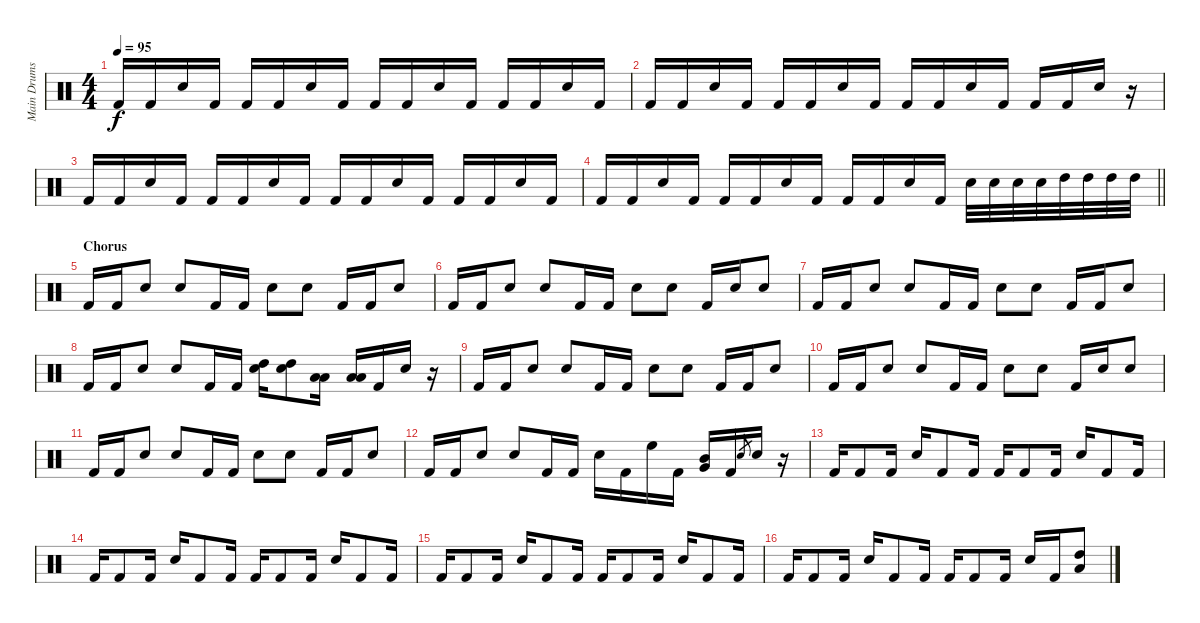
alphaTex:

\track ("Main Drums" "Main Drums") {instrument percussion}
\staff {score}
\articulation defaults
\ts (4 4)
\tempo 95
\clef neutral
\ks c "Kick (hit) 2".16{dy f} "Kick (hit) 2".16 "Snare (hit) 2".16 "Kick (hit) 2".16 "Kick (hit) 2".16 "Kick (hit) 2".16 "Snare (hit) 2".16 "Kick (hit) 2".16 "Kick (hit) 2".16 "Kick (hit) 2".16 "Snare (hit) 2".16 "Kick (hit) 2".16 "Kick (hit) 2".16 "Kick (hit) 2".16 "Snare (hit) 2".16 "Kick (hit) 2".16
|
"Kick (hit) 2".16 "Kick (hit) 2".16 "Snare (hit) 2".16 "Kick (hit) 2".16 "Kick (hit) 2".16 "Kick (hit) 2".16 "Snare (hit) 2".16 "Kick (hit) 2".16 "Kick (hit) 2".16 "Kick (hit) 2".16 "Snare (hit) 2".16 "Kick (hit) 2".16 "Kick (hit) 2".16 "Kick (hit) 2".16 "Snare (hit) 2".16 r.16 |
"Kick (hit) 2".16 "Kick (hit) 2".16 "Snare (hit) 2".16 "Kick (hit) 2".16 "Kick (hit) 2".16 "Kick (hit) 2".16 "Snare (hit) 2".16 "Kick (hit) 2".16 "Kick (hit) 2".16 "Kick (hit) 2".16 "Snare (hit) 2".16 "Kick (hit) 2".16 "Kick (hit) 2".16 "Kick (hit) 2".16 "Snare (hit) 2".16 "Kick (hit) 2".16 |
\barLineRight lightlight "Kick (hit) 2".16 "Kick (hit) 2".16 "Snare (hit) 2".16 "Kick (hit) 2".16 "Kick (hit) 2".16 "Kick (hit) 2".16 "Snare (hit) 2".16 "Kick (hit) 2".16 "Kick (hit) 2".16 "Kick (hit) 2".16 "Snare (hit) 2".16 "Kick (hit) 2".16 "Snare (hit) 2".32 "Snare (hit) 2".32 "Snare (hit) 2".32 "Snare (hit) 2".32 "High Tom (hit)".32 "High Tom (hit)".32 "High Tom (hit)".32 "High Tom (hit)".32
|
\section ("" "Chorus")
"Kick (hit) 2".16 "Kick (hit) 2".16 "Snare (hit) 2".8 "Snare (hit) 2".8 "Kick (hit) 2".16 "Kick (hit) 2".16 "Snare (hit) 2".8 "Snare (hit) 2".8 "Kick (hit) 2".16 "Kick (hit) 2".16 "Snare (hit) 2".8 |
"Kick (hit) 2".16 "Kick (hit) 2".16 "Snare (hit) 2".8 "Snare (hit) 2".8 "Kick (hit) 2".16 "Kick (hit) 2".16 "Snare (hit) 2".8 "Snare (hit) 2".8 "Kick (hit) 2".16 "Snare (hit) 2".16 "Snare (hit) 2".8 |
"Kick (hit) 2".16 "Kick (hit) 2".16 "Snare (hit) 2".8 "Snare (hit) 2".8 "Kick (hit) 2".16 "Kick (hit) 2".16 "Snare (hit) 2".8 "Snare (hit) 2".8 "Kick (hit) 2".16 "Kick (hit) 2".16 "Snare (hit) 2".8 |
"Kick (hit) 2".16 "Kick (hit) 2".16 "Snare (hit) 2".8 "Snare (hit) 2".8 "Kick (hit) 2".16 "Kick (hit) 2".16 ("High Tom (hit)" "Snare (hit) 2").16 ("High Tom (hit)" "Snare (hit) 2").8 ("Low Tom (hit)" "Low Floor Tom (hit)").16 ("Low Tom (hit)" "Low Floor Tom (hit)").16 "Kick (hit) 2".16 "Snare (hit) 2".16 r.16 |
"Kick (hit) 2".16 "Kick (hit) 2".16 "Snare (hit) 2".8 "Snare (hit) 2".8 "Kick (hit) 2".16 "Kick (hit) 2".16 "Snare (hit) 2".8 "Snare (hit) 2".8 "Kick (hit) 2".16 "Kick (hit) 2".16 "Snare (hit) 2".8 |
"Kick (hit) 2".16 "Kick (hit) 2".16 "Snare (hit) 2".8 "Snare (hit) 2".8 "Kick (hit) 2".16 "Kick (hit) 2".16 "Snare (hit) 2".8 "Snare (hit) 2".8 "Kick (hit) 2".16 "Snare (hit) 2".16 "Snare (hit) 2".8 |
"Kick (hit) 2".16 "Kick (hit) 2".16 "Snare (hit) 2".8 "Snare (hit) 2".8 "Kick (hit) 2".16 "Kick (hit) 2".16 "Snare (hit) 2".8 "Snare (hit) 2".8 "Kick (hit) 2".16 "Kick (hit) 2".16 "Snare (hit) 2".8 |
"Kick (hit) 2".16 "Kick (hit) 2".16 "Snare (hit) 2".8 "Snare (hit) 2".8 "Kick (hit) 2".16 "Kick (hit) 2".16 "Snare (hit) 2".16 "Kick (hit) 2".16 "High Floor Tom (hit)".16 "Kick (hit) 2".16 ("Mid Tom (hit)" "Very Low Tom (hit)").16 "Kick (hit) 2".16 "Snare (hit) 2".8{gr} "Snare (hit) 2".16 r.16 |
"Kick (hit) 2".16 "Kick (hit) 2".8 "Kick (hit) 2".16 "Snare (hit) 2".16 "Kick (hit) 2".8 "Kick (hit) 2".16 "Kick (hit) 2".16 "Kick (hit) 2".8 "Kick (hit) 2".16 "Snare (hit) 2".16 "Kick (hit) 2".8 "Kick (hit) 2".16 |
"Kick (hit) 2".16 "Kick (hit) 2".8 "Kick (hit) 2".16 "Snare (hit) 2".16 "Kick (hit) 2".8 "Kick (hit) 2".16 "Kick (hit) 2".16 "Kick (hit) 2".8 "Kick (hit) 2".16 "Snare (hit) 2".16 "Kick (hit) 2".8 "Kick (hit) 2".16 |
"Kick (hit) 2".16 "Kick (hit) 2".8 "Kick (hit) 2".16 "Snare (hit) 2".16 "Kick (hit) 2".8 "Kick (hit) 2".16 "Kick (hit) 2".16 "Kick (hit) 2".8 "Kick (hit) 2".16 "Snare (hit) 2".16 "Kick (hit) 2".8 "Kick (hit) 2".16 |
"Kick (hit) 2".16 "Kick (hit) 2".8 "Kick (hit) 2".16 "Snare (hit) 2".16 "Kick (hit) 2".8 "Kick (hit) 2".16 "Kick (hit) 2".16 "Kick (hit) 2".8 "Kick (hit) 2".16 "Snare (hit) 2".16 "Kick (hit) 2".16 ("Low Floor Tom (hit)" "High Tom (hit)").8
